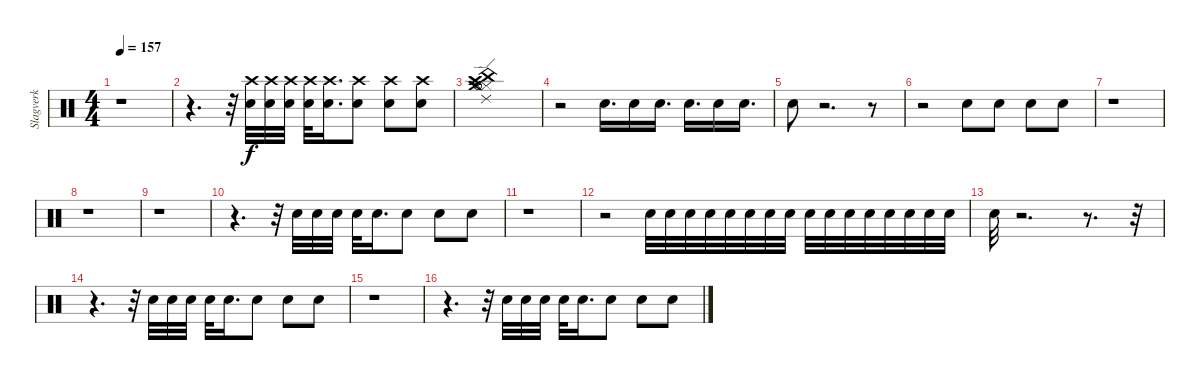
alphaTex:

\track ("Slagverk" "Slagverk") {instrument percussion}
\staff {score}
\articulation defaults
\ts (4 4)
\tempo 157
\clef neutral
\ks c
r.1{dy f} |
r.4{d} r.32 ("Snare (hit) 2" "Crash high (hit)").32{volume 4} ("Snare (hit) 2" "Crash high (hit)").32{volume 4} ("Snare (hit) 2" "Crash high (hit)").32{volume 5} ("Snare (hit) 2" "Crash high (hit)").32{volume 6} ("Snare (hit) 2" "Crash high (hit)").16{d volume 7} ("Snare (hit) 2" "Crash high (hit)").8{volume 9} ("Snare (hit) 2" "Crash high (hit)").8{volume 12} ("Snare (hit) 2" "Crash high (hit)").8 |
("Hi-Hat (closed)" "Hi-Hat (open)" "Crash high (hit)" "China (hit)" "Ride (edge) 2" "Crash medium (hit)").1{volume 7} |
r.2 "Snare (hit) 2".16{d volume 3} "Snare (hit) 2".16{volume 4} "Snare (hit) 2".16{d volume 4} "Snare (hit) 2".16{d volume 4} "Snare (hit) 2".16{volume 5} "Snare (hit) 2".16{d volume 5} |
"Snare (hit) 2".8{volume 6} r.2{d} r.8 |
r.2 "Snare (hit) 2".8{volume 7} "Snare (hit) 2".8 "Snare (hit) 2".8 "Snare (hit) 2".8 |
r.1 |
r.1 |
r.1 |
r.4{d} r.32 "Snare (hit) 2".32{volume 4} "Snare (hit) 2".32{volume 4} "Snare (hit) 2".32{volume 5} "Snare (hit) 2".32{volume 6} "Snare (hit) 2".16{d volume 7} "Snare (hit) 2".8{volume 9} "Snare (hit) 2".8{volume 12} "Snare (hit) 2".8 |
r.1 |
r.2 "Snare (hit) 2".32{volume 0} "Snare (hit) 2".32{volume 0} "Snare (hit) 2".32{volume 1} "Snare (hit) 2".32{volume 2} "Snare (hit) 2".32{volume 2} "Snare (hit) 2".32{volume 3} "Snare (hit) 2".32{volume 3} "Snare (hit) 2".32{volume 4} "Snare (hit) 2".32{volume 4} "Snare (hit) 2".32{volume 5} "Snare (hit) 2".32{volume 5} "Snare (hit) 2".32{volume 6} "Snare (hit) 2".32{volume 6} "Snare (hit) 2".32{volume 7} "Snare (hit) 2".32 "Snare (hit) 2".32 |
"Snare (hit) 2".32 r.2{d} r.8{d} r.32 |
r.4{d} r.32 "Snare (hit) 2".32{volume 4} "Snare (hit) 2".32{volume 4} "Snare (hit) 2".32{volume 5} "Snare (hit) 2".32{volume 6} "Snare (hit) 2".16{d volume 7} "Snare (hit) 2".8{volume 9} "Snare (hit) 2".8{volume 12} "Snare (hit) 2".8 |
r.1 |
r.4{d} r.32 "Snare (hit) 2".32{volume 4} "Snare (hit) 2".32{volume 4} "Snare (hit) 2".32{volume 5} "Snare (hit) 2".32{volume 6} "Snare (hit) 2".16{d volume 7} "Snare (hit) 2".8{volume 9} "Snare (hit) 2".8{volume 12} "Snare (hit) 2".8
